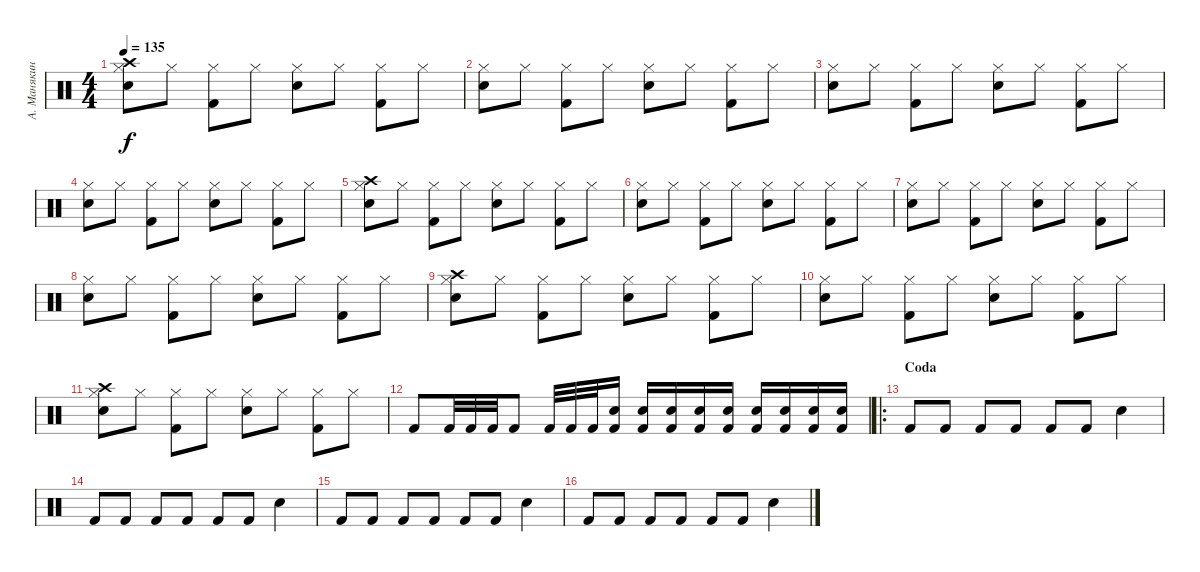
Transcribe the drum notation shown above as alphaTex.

\track ("А. Манякин" "А. Манякин") {instrument percussion}
\staff {score}
\articulation defaults
\ts (4 4)
\tempo 135
\clef neutral
\ks c
("Hi-Hat (closed)" "Snare (hit) 2" "Crash high (hit)").8{dy f} "Hi-Hat (closed)".8 ("Hi-Hat (closed)" "Kick (hit) 2").8 "Hi-Hat (closed)".8 ("Hi-Hat (closed)" "Snare (hit) 2").8 "Hi-Hat (closed)".8 ("Hi-Hat (closed)" "Kick (hit) 2").8 "Hi-Hat (closed)".8 |
("Hi-Hat (closed)" "Snare (hit) 2").8 "Hi-Hat (closed)".8 ("Hi-Hat (closed)" "Kick (hit) 2").8 "Hi-Hat (closed)".8 ("Hi-Hat (closed)" "Snare (hit) 2").8 "Hi-Hat (closed)".8 ("Hi-Hat (closed)" "Kick (hit) 2").8 "Hi-Hat (closed)".8 |
("Hi-Hat (closed)" "Snare (hit) 2").8 "Hi-Hat (closed)".8 ("Hi-Hat (closed)" "Kick (hit) 2").8 "Hi-Hat (closed)".8 ("Hi-Hat (closed)" "Snare (hit) 2").8 "Hi-Hat (closed)".8 ("Hi-Hat (closed)" "Kick (hit) 2").8 "Hi-Hat (closed)".8 |
("Hi-Hat (closed)" "Snare (hit) 2").8 "Hi-Hat (closed)".8 ("Hi-Hat (closed)" "Kick (hit) 2").8 "Hi-Hat (closed)".8 ("Hi-Hat (closed)" "Snare (hit) 2").8 "Hi-Hat (closed)".8 ("Hi-Hat (closed)" "Kick (hit) 2").8 "Hi-Hat (closed)".8 |
("Hi-Hat (closed)" "Snare (hit) 2" "Crash high (hit)").8 "Hi-Hat (closed)".8 ("Hi-Hat (closed)" "Kick (hit) 2").8 "Hi-Hat (closed)".8 ("Hi-Hat (closed)" "Snare (hit) 2").8 "Hi-Hat (closed)".8 ("Hi-Hat (closed)" "Kick (hit) 2").8 "Hi-Hat (closed)".8 |
("Hi-Hat (closed)" "Snare (hit) 2").8 "Hi-Hat (closed)".8 ("Hi-Hat (closed)" "Kick (hit) 2").8 "Hi-Hat (closed)".8 ("Hi-Hat (closed)" "Snare (hit) 2").8 "Hi-Hat (closed)".8 ("Hi-Hat (closed)" "Kick (hit) 2").8 "Hi-Hat (closed)".8 |
("Hi-Hat (closed)" "Snare (hit) 2").8 "Hi-Hat (closed)".8 ("Hi-Hat (closed)" "Kick (hit) 2").8 "Hi-Hat (closed)".8 ("Hi-Hat (closed)" "Snare (hit) 2").8 "Hi-Hat (closed)".8 ("Hi-Hat (closed)" "Kick (hit) 2").8 "Hi-Hat (closed)".8 |
("Hi-Hat (closed)" "Snare (hit) 2").8 "Hi-Hat (closed)".8 ("Hi-Hat (closed)" "Kick (hit) 2").8 "Hi-Hat (closed)".8 ("Hi-Hat (closed)" "Snare (hit) 2").8 "Hi-Hat (closed)".8 ("Hi-Hat (closed)" "Kick (hit) 2").8 "Hi-Hat (closed)".8 |
("Hi-Hat (closed)" "Snare (hit) 2" "Crash high (hit)").8 "Hi-Hat (closed)".8 ("Hi-Hat (closed)" "Kick (hit) 2").8 "Hi-Hat (closed)".8 ("Hi-Hat (closed)" "Snare (hit) 2").8 "Hi-Hat (closed)".8 ("Hi-Hat (closed)" "Kick (hit) 2").8 "Hi-Hat (closed)".8 |
("Hi-Hat (closed)" "Snare (hit) 2").8 "Hi-Hat (closed)".8 ("Hi-Hat (closed)" "Kick (hit) 2").8 "Hi-Hat (closed)".8 ("Hi-Hat (closed)" "Snare (hit) 2").8 "Hi-Hat (closed)".8 ("Hi-Hat (closed)" "Kick (hit) 2").8 "Hi-Hat (closed)".8 |
("Hi-Hat (closed)" "Snare (hit) 2" "Crash high (hit)").8 "Hi-Hat (closed)".8 ("Hi-Hat (closed)" "Kick (hit) 2").8 "Hi-Hat (closed)".8 ("Hi-Hat (closed)" "Snare (hit) 2").8 "Hi-Hat (closed)".8 ("Hi-Hat (closed)" "Kick (hit) 2").8 "Hi-Hat (closed)".8 |
"Kick (hit) 2".8 "Kick (hit) 2".32 "Kick (hit) 2".32 "Kick (hit) 2".32 "Kick (hit) 2".8 "Kick (hit) 2".32 "Kick (hit) 2".32 "Kick (hit) 2".32 ("Snare (hit) 2" "Kick (hit) 2").16 ("Snare (hit) 2" "Kick (hit) 2").16 ("Snare (hit) 2" "Kick (hit) 2").16 ("Snare (hit) 2" "Kick (hit) 2").16 ("Snare (hit) 2" "Kick (hit) 2").16 ("Snare (hit) 2" "Kick (hit) 2").16 ("Snare (hit) 2" "Kick (hit) 2").16 ("Snare (hit) 2" "Kick (hit) 2").16 ("Snare (hit) 2" "Kick (hit) 2").16 |
\ro
\section ("" "Coda")
"Kick (hit) 2".8 "Kick (hit) 2".8 "Kick (hit) 2".8 "Kick (hit) 2".8 "Kick (hit) 2".8 "Kick (hit) 2".8 "Snare (hit) 2".4 |
"Kick (hit) 2".8 "Kick (hit) 2".8 "Kick (hit) 2".8 "Kick (hit) 2".8 "Kick (hit) 2".8 "Kick (hit) 2".8 "Snare (hit) 2".4 |
"Kick (hit) 2".8 "Kick (hit) 2".8 "Kick (hit) 2".8 "Kick (hit) 2".8 "Kick (hit) 2".8 "Kick (hit) 2".8 "Snare (hit) 2".4 |
"Kick (hit) 2".8 "Kick (hit) 2".8 "Kick (hit) 2".8 "Kick (hit) 2".8 "Kick (hit) 2".8 "Kick (hit) 2".8 "Snare (hit) 2".4
